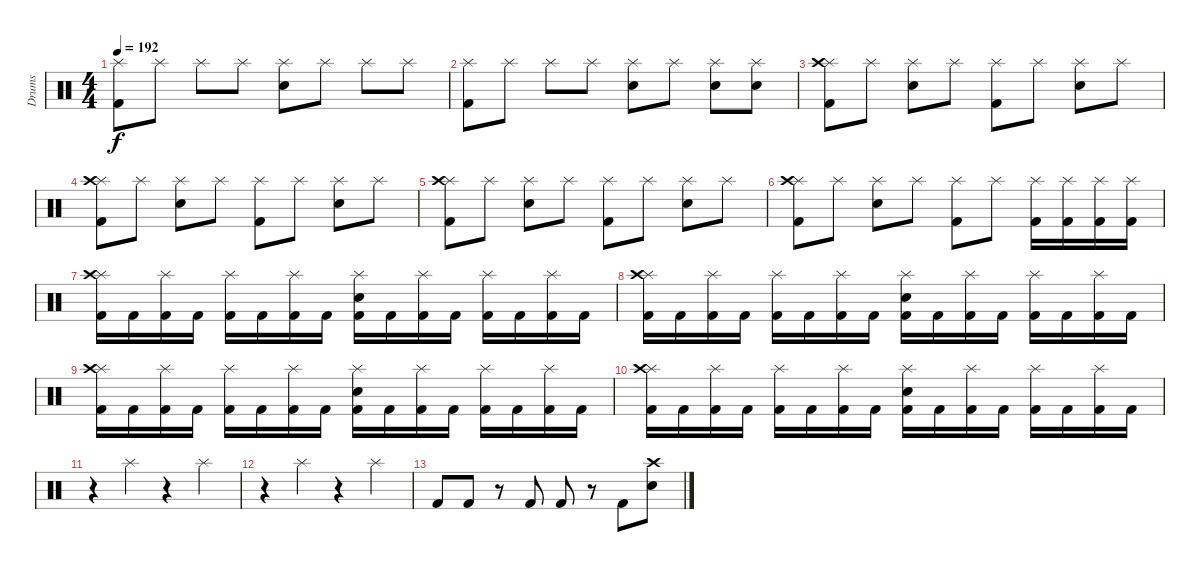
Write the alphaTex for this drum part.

\track ("Drums" "Drums") {instrument percussion}
\staff {score}
\articulation defaults
\ts (4 4)
\tempo 192
\clef neutral
\ks c
("Splash (hit)" "Kick (hit) 2").8{dy f} "Splash (hit)".8 "Splash (hit)".8 "Splash (hit)".8 ("Splash (hit)" "Electric Snare (hit)").8 "Splash (hit)".8 "Splash (hit)".8 "Splash (hit)".8 |
("Splash (hit)" "Kick (hit) 2").8 "Splash (hit)".8 "Splash (hit)".8 "Splash (hit)".8 ("Splash (hit)" "Electric Snare (hit)").8 "Splash (hit)".8 ("Splash (hit)" "Electric Snare (hit)").8 ("Splash (hit)" "Electric Snare (hit)").8 |
("Splash (hit)" "Crash high (hit)" "Kick (hit) 2").8 "Splash (hit)".8 ("Splash (hit)" "Electric Snare (hit)").8 "Splash (hit)".8 ("Splash (hit)" "Kick (hit) 2").8 "Splash (hit)".8 ("Splash (hit)" "Electric Snare (hit)").8 "Splash (hit)".8 |
("Splash (hit)" "Crash high (hit)" "Kick (hit) 2").8 "Splash (hit)".8 ("Splash (hit)" "Electric Snare (hit)").8 "Splash (hit)".8 ("Splash (hit)" "Kick (hit) 2").8 "Splash (hit)".8 ("Splash (hit)" "Electric Snare (hit)").8 "Splash (hit)".8 |
("Splash (hit)" "Crash high (hit)" "Kick (hit) 2").8 "Splash (hit)".8 ("Splash (hit)" "Electric Snare (hit)").8 "Splash (hit)".8 ("Splash (hit)" "Kick (hit) 2").8 "Splash (hit)".8 ("Splash (hit)" "Electric Snare (hit)").8 "Splash (hit)".8 |
("Splash (hit)" "Crash high (hit)" "Kick (hit) 2").8 "Splash (hit)".8 ("Splash (hit)" "Electric Snare (hit)").8 "Splash (hit)".8 ("Splash (hit)" "Kick (hit) 2").8 "Splash (hit)".8 ("Splash (hit)" "Kick (hit) 2").16 ("Splash (hit)" "Kick (hit) 2").16 ("Splash (hit)" "Kick (hit) 2").16 ("Splash (hit)" "Kick (hit) 2").16 |
("Splash (hit)" "Crash high (hit)" "Kick (hit) 2").16 "Kick (hit) 2".16 ("Splash (hit)" "Kick (hit) 2").16 "Kick (hit) 2".16 ("Splash (hit)" "Kick (hit) 2").16 "Kick (hit) 2".16 ("Splash (hit)" "Kick (hit) 2").16 "Kick (hit) 2".16 ("Splash (hit)" "Electric Snare (hit)" "Kick (hit) 2").16 "Kick (hit) 2".16 ("Splash (hit)" "Kick (hit) 2").16 "Kick (hit) 2".16 ("Splash (hit)" "Kick (hit) 2").16 "Kick (hit) 2".16 ("Splash (hit)" "Kick (hit) 2").16 "Kick (hit) 2".16 |
("Splash (hit)" "Crash high (hit)" "Kick (hit) 2").16 "Kick (hit) 2".16 ("Splash (hit)" "Kick (hit) 2").16 "Kick (hit) 2".16 ("Splash (hit)" "Kick (hit) 2").16 "Kick (hit) 2".16 ("Splash (hit)" "Kick (hit) 2").16 "Kick (hit) 2".16 ("Splash (hit)" "Electric Snare (hit)" "Kick (hit) 2").16 "Kick (hit) 2".16 ("Splash (hit)" "Kick (hit) 2").16 "Kick (hit) 2".16 ("Splash (hit)" "Kick (hit) 2").16 "Kick (hit) 2".16 ("Splash (hit)" "Kick (hit) 2").16 "Kick (hit) 2".16 |
("Splash (hit)" "Crash high (hit)" "Kick (hit) 2").16 "Kick (hit) 2".16 ("Splash (hit)" "Kick (hit) 2").16 "Kick (hit) 2".16 ("Splash (hit)" "Kick (hit) 2").16 "Kick (hit) 2".16 ("Splash (hit)" "Kick (hit) 2").16 "Kick (hit) 2".16 ("Splash (hit)" "Electric Snare (hit)" "Kick (hit) 2").16 "Kick (hit) 2".16 ("Splash (hit)" "Kick (hit) 2").16 "Kick (hit) 2".16 ("Splash (hit)" "Kick (hit) 2").16 "Kick (hit) 2".16 ("Splash (hit)" "Kick (hit) 2").16 "Kick (hit) 2".16 |
("Splash (hit)" "Crash high (hit)" "Kick (hit) 2").16 "Kick (hit) 2".16 ("Splash (hit)" "Kick (hit) 2").16 "Kick (hit) 2".16 ("Splash (hit)" "Kick (hit) 2").16 "Kick (hit) 2".16 ("Splash (hit)" "Kick (hit) 2").16 "Kick (hit) 2".16 ("Splash (hit)" "Electric Snare (hit)" "Kick (hit) 2").16 "Kick (hit) 2".16 ("Splash (hit)" "Kick (hit) 2").16 "Kick (hit) 2".16 ("Splash (hit)" "Kick (hit) 2").16 "Kick (hit) 2".16 ("Splash (hit)" "Kick (hit) 2").16 "Kick (hit) 2".16 |
r.4 "Splash (hit)".4 r.4 "Splash (hit)".4 |
r.4 "Splash (hit)".4 r.4 "Splash (hit)".4 |
"Kick (hit) 2".8 "Kick (hit) 2".8 r.8 "Kick (hit) 2".8 "Kick (hit) 2".8 r.8 "Kick (hit) 2".8 ("Electric Snare (hit)" "Crash high (hit)").8
